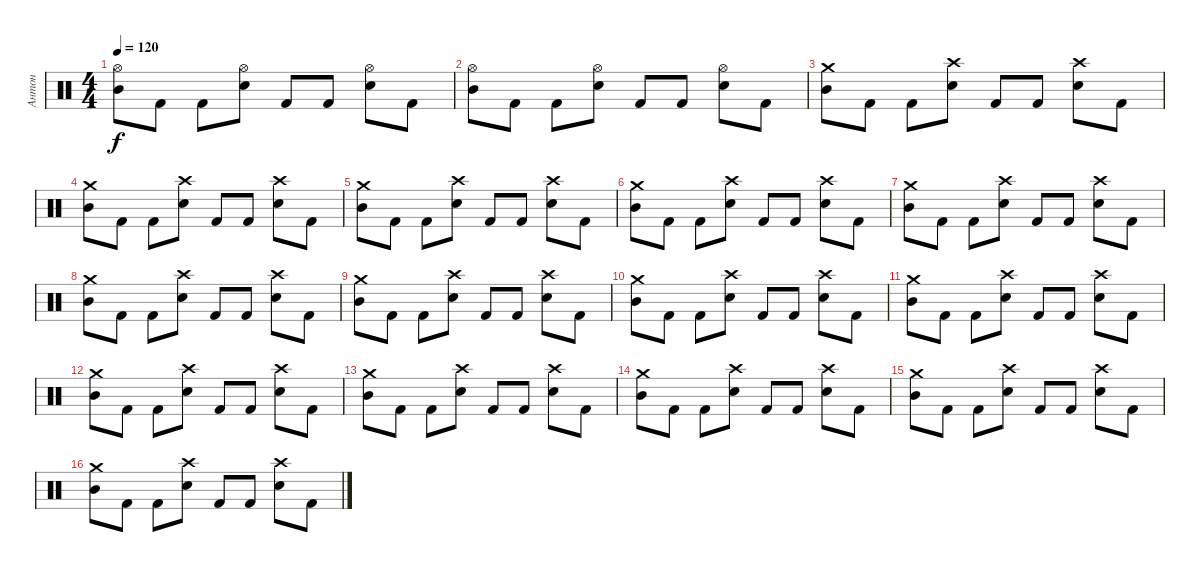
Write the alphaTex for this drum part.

\track ("Антон" "Антон") {instrument percussion}
\staff {score}
\articulation defaults
\ts (4 4)
\tempo 120
\clef neutral
\ks c
("Hi-Hat (open)" "Mid Tom (hit)").8{dy f} "Kick (hit) 2".8 "Kick (hit) 2".8 ("Hi-Hat (open)" "Electric Snare (hit)").8 "Kick (hit) 2".8 "Kick (hit) 2".8 ("Hi-Hat (open)" "Electric Snare (hit)").8 "Kick (hit) 2".8 |
("Hi-Hat (open)" "Mid Tom (hit)").8 "Kick (hit) 2".8 "Kick (hit) 2".8 ("Hi-Hat (open)" "Electric Snare (hit)").8 "Kick (hit) 2".8 "Kick (hit) 2".8 ("Hi-Hat (open)" "Electric Snare (hit)").8 "Kick (hit) 2".8 |
("Crash medium (hit)" "Mid Tom (hit)").8 "Kick (hit) 2".8 "Kick (hit) 2".8 ("Crash high (hit)" "Electric Snare (hit)").8 "Kick (hit) 2".8 "Kick (hit) 2".8 ("Crash high (hit)" "Electric Snare (hit)").8 "Kick (hit) 2".8 |
("Crash medium (hit)" "Mid Tom (hit)").8 "Kick (hit) 2".8 "Kick (hit) 2".8 ("Crash high (hit)" "Electric Snare (hit)").8 "Kick (hit) 2".8 "Kick (hit) 2".8 ("Crash high (hit)" "Electric Snare (hit)").8 "Kick (hit) 2".8 |
("Crash medium (hit)" "Mid Tom (hit)").8 "Kick (hit) 2".8 "Kick (hit) 2".8 ("Crash high (hit)" "Electric Snare (hit)").8 "Kick (hit) 2".8 "Kick (hit) 2".8 ("Crash high (hit)" "Electric Snare (hit)").8 "Kick (hit) 2".8 |
("Crash medium (hit)" "Mid Tom (hit)").8 "Kick (hit) 2".8 "Kick (hit) 2".8 ("Crash high (hit)" "Electric Snare (hit)").8 "Kick (hit) 2".8 "Kick (hit) 2".8 ("Crash high (hit)" "Electric Snare (hit)").8 "Kick (hit) 2".8 |
("Crash medium (hit)" "Mid Tom (hit)").8 "Kick (hit) 2".8 "Kick (hit) 2".8 ("Crash high (hit)" "Electric Snare (hit)").8 "Kick (hit) 2".8 "Kick (hit) 2".8 ("Crash high (hit)" "Electric Snare (hit)").8 "Kick (hit) 2".8 |
("Crash medium (hit)" "Mid Tom (hit)").8 "Kick (hit) 2".8 "Kick (hit) 2".8 ("Crash high (hit)" "Electric Snare (hit)").8 "Kick (hit) 2".8 "Kick (hit) 2".8 ("Crash high (hit)" "Electric Snare (hit)").8 "Kick (hit) 2".8 |
("Crash medium (hit)" "Mid Tom (hit)").8 "Kick (hit) 2".8 "Kick (hit) 2".8 ("Crash high (hit)" "Electric Snare (hit)").8 "Kick (hit) 2".8 "Kick (hit) 2".8 ("Crash high (hit)" "Electric Snare (hit)").8 "Kick (hit) 2".8 |
("Crash medium (hit)" "Mid Tom (hit)").8 "Kick (hit) 2".8 "Kick (hit) 2".8 ("Crash high (hit)" "Electric Snare (hit)").8 "Kick (hit) 2".8 "Kick (hit) 2".8 ("Crash high (hit)" "Electric Snare (hit)").8 "Kick (hit) 2".8 |
("Crash medium (hit)" "Mid Tom (hit)").8 "Kick (hit) 2".8 "Kick (hit) 2".8 ("Crash high (hit)" "Electric Snare (hit)").8 "Kick (hit) 2".8 "Kick (hit) 2".8 ("Crash high (hit)" "Electric Snare (hit)").8 "Kick (hit) 2".8 |
("Crash medium (hit)" "Mid Tom (hit)").8 "Kick (hit) 2".8 "Kick (hit) 2".8 ("Crash high (hit)" "Electric Snare (hit)").8 "Kick (hit) 2".8 "Kick (hit) 2".8 ("Crash high (hit)" "Electric Snare (hit)").8 "Kick (hit) 2".8 |
("Crash medium (hit)" "Mid Tom (hit)").8 "Kick (hit) 2".8 "Kick (hit) 2".8 ("Crash high (hit)" "Electric Snare (hit)").8 "Kick (hit) 2".8 "Kick (hit) 2".8 ("Crash high (hit)" "Electric Snare (hit)").8 "Kick (hit) 2".8 |
("Crash medium (hit)" "Mid Tom (hit)").8 "Kick (hit) 2".8 "Kick (hit) 2".8 ("Crash high (hit)" "Electric Snare (hit)").8 "Kick (hit) 2".8 "Kick (hit) 2".8 ("Crash high (hit)" "Electric Snare (hit)").8 "Kick (hit) 2".8 |
("Crash medium (hit)" "Mid Tom (hit)").8 "Kick (hit) 2".8 "Kick (hit) 2".8 ("Crash high (hit)" "Electric Snare (hit)").8 "Kick (hit) 2".8 "Kick (hit) 2".8 ("Crash high (hit)" "Electric Snare (hit)").8 "Kick (hit) 2".8 |
("Crash medium (hit)" "Mid Tom (hit)").8 "Kick (hit) 2".8 "Kick (hit) 2".8 ("Crash high (hit)" "Electric Snare (hit)").8 "Kick (hit) 2".8 "Kick (hit) 2".8 ("Crash high (hit)" "Electric Snare (hit)").8 "Kick (hit) 2".8
